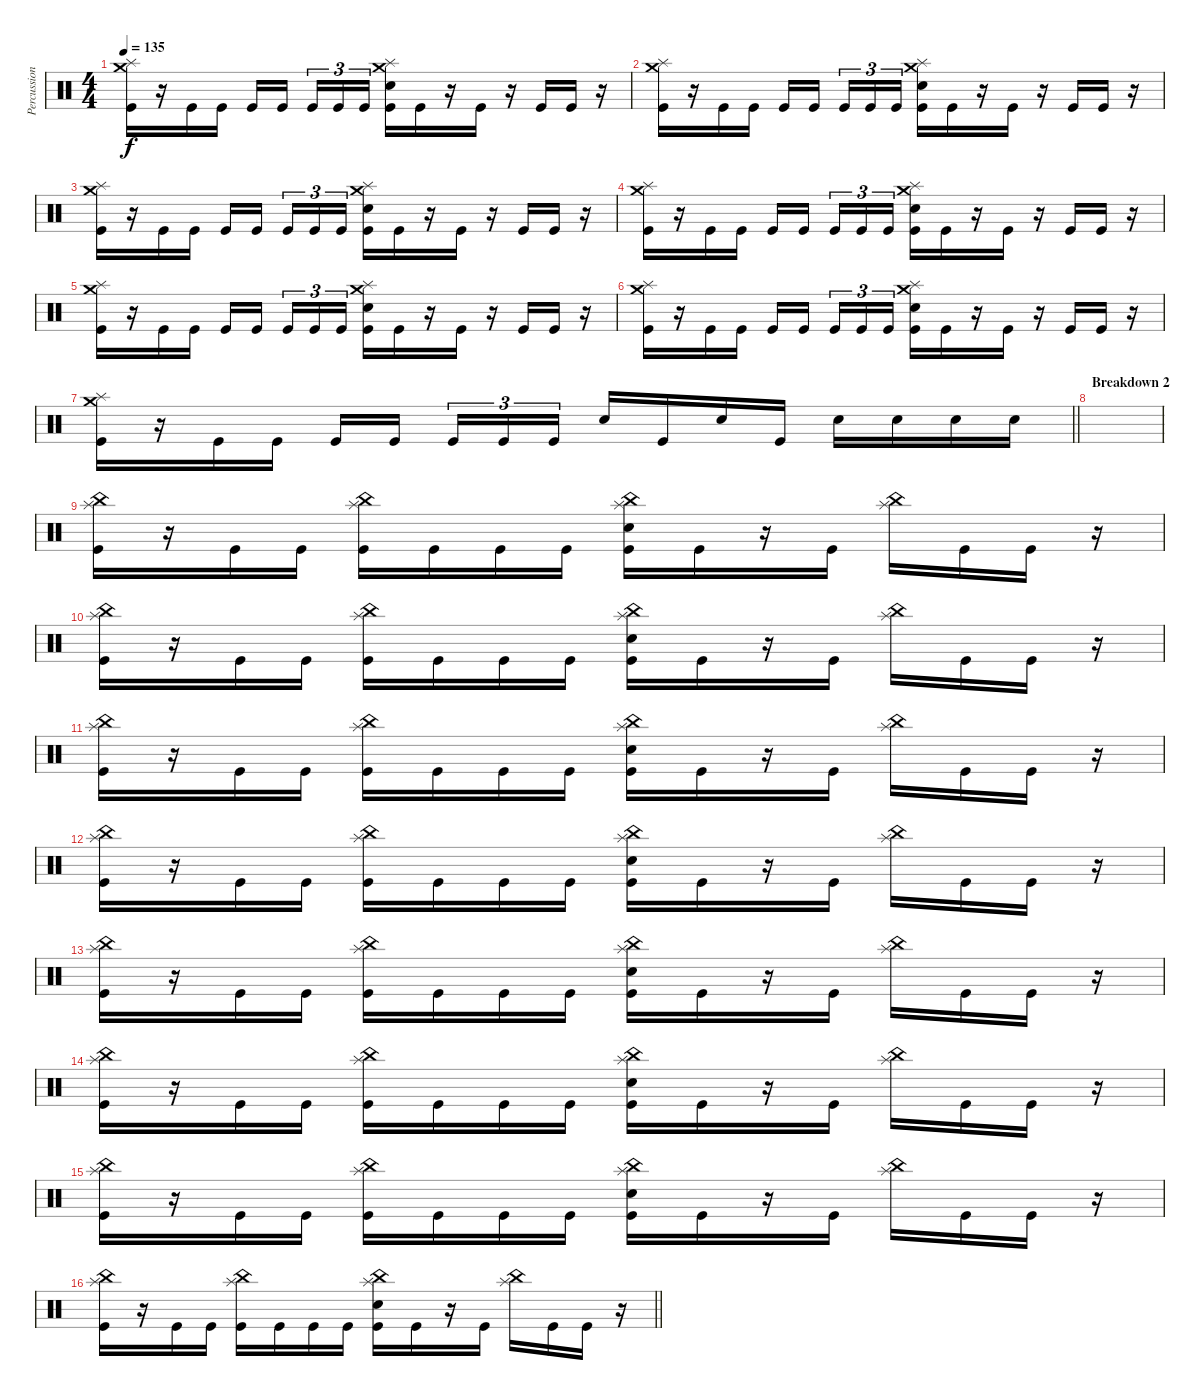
\track ("Percussion (Approx.)" "Percussion") {instrument percussion}
\staff {score}
\articulation defaults
\ts (4 4)
\tempo 135
\clef neutral
\ks c
("Crash medium (hit)" "Splash (hit)" "Kick (hit)").16{dy f} r.16 "Kick (hit)".16 "Kick (hit)".16 "Kick (hit)".16 "Kick (hit)".16{beam splitsecondary} "Kick (hit)".16{tu (3 2)} "Kick (hit)".16{tu (3 2)} "Kick (hit)".16{tu (3 2)} ("Crash medium (hit)" "Splash (hit)" "Electric Snare (hit)" "Kick (hit)").16 "Kick (hit)".16 r.16 "Kick (hit)".16 r.16 "Kick (hit)".16 "Kick (hit)".16 r.16 |
("Crash medium (hit)" "Splash (hit)" "Kick (hit)").16 r.16 "Kick (hit)".16 "Kick (hit)".16 "Kick (hit)".16 "Kick (hit)".16{beam splitsecondary} "Kick (hit)".16{tu (3 2)} "Kick (hit)".16{tu (3 2)} "Kick (hit)".16{tu (3 2)} ("Crash medium (hit)" "Splash (hit)" "Electric Snare (hit)" "Kick (hit)").16 "Kick (hit)".16 r.16 "Kick (hit)".16 r.16 "Kick (hit)".16 "Kick (hit)".16 r.16 |
("Crash medium (hit)" "Splash (hit)" "Kick (hit)").16 r.16 "Kick (hit)".16 "Kick (hit)".16 "Kick (hit)".16 "Kick (hit)".16{beam splitsecondary} "Kick (hit)".16{tu (3 2)} "Kick (hit)".16{tu (3 2)} "Kick (hit)".16{tu (3 2)} ("Crash medium (hit)" "Splash (hit)" "Electric Snare (hit)" "Kick (hit)").16 "Kick (hit)".16 r.16 "Kick (hit)".16 r.16 "Kick (hit)".16 "Kick (hit)".16 r.16 |
("Crash medium (hit)" "Splash (hit)" "Kick (hit)").16 r.16 "Kick (hit)".16 "Kick (hit)".16 "Kick (hit)".16 "Kick (hit)".16{beam splitsecondary} "Kick (hit)".16{tu (3 2)} "Kick (hit)".16{tu (3 2)} "Kick (hit)".16{tu (3 2)} ("Crash medium (hit)" "Splash (hit)" "Electric Snare (hit)" "Kick (hit)").16 "Kick (hit)".16 r.16 "Kick (hit)".16 r.16 "Kick (hit)".16 "Kick (hit)".16 r.16 |
("Crash medium (hit)" "Splash (hit)" "Kick (hit)").16 r.16 "Kick (hit)".16 "Kick (hit)".16 "Kick (hit)".16 "Kick (hit)".16{beam splitsecondary} "Kick (hit)".16{tu (3 2)} "Kick (hit)".16{tu (3 2)} "Kick (hit)".16{tu (3 2)} ("Crash medium (hit)" "Splash (hit)" "Electric Snare (hit)" "Kick (hit)").16 "Kick (hit)".16 r.16 "Kick (hit)".16 r.16 "Kick (hit)".16 "Kick (hit)".16 r.16 |
("Crash medium (hit)" "Splash (hit)" "Kick (hit)").16 r.16 "Kick (hit)".16 "Kick (hit)".16 "Kick (hit)".16 "Kick (hit)".16{beam splitsecondary} "Kick (hit)".16{tu (3 2)} "Kick (hit)".16{tu (3 2)} "Kick (hit)".16{tu (3 2)} ("Crash medium (hit)" "Splash (hit)" "Electric Snare (hit)" "Kick (hit)").16 "Kick (hit)".16 r.16 "Kick (hit)".16 r.16 "Kick (hit)".16 "Kick (hit)".16 r.16 |
\barLineRight lightlight
("Crash medium (hit)" "Splash (hit)" "Kick (hit)").16 r.16 "Kick (hit)".16 "Kick (hit)".16 "Kick (hit)".16 "Kick (hit)".16{beam splitsecondary} "Kick (hit)".16{tu (3 2)} "Kick (hit)".16{tu (3 2)} "Kick (hit)".16{tu (3 2)} "Electric Snare (hit)".16 "Kick (hit)".16 "Electric Snare (hit)".16 "Kick (hit)".16 "Electric Snare (hit)".16 "Electric Snare (hit)".16 "Electric Snare (hit)".16 "Electric Snare (hit)".16 |
\section ("" "Breakdown 2")
|
("China (hit)" "Splash (hit)" "Kick (hit)").16 r.16 "Kick (hit)".16 "Kick (hit)".16 ("China (hit)" "Splash (hit)" "Kick (hit)").16 "Kick (hit)".16 "Kick (hit)".16 "Kick (hit)".16 ("China (hit)" "Splash (hit)" "Electric Snare (hit)" "Kick (hit)").16 "Kick (hit)".16 r.16 "Kick (hit)".16 ("China (hit)" "Splash (hit)").16 "Kick (hit)".16 "Kick (hit)".16 r.16 |
("China (hit)" "Splash (hit)" "Kick (hit)").16 r.16 "Kick (hit)".16 "Kick (hit)".16 ("China (hit)" "Splash (hit)" "Kick (hit)").16 "Kick (hit)".16 "Kick (hit)".16 "Kick (hit)".16 ("China (hit)" "Splash (hit)" "Electric Snare (hit)" "Kick (hit)").16 "Kick (hit)".16 r.16 "Kick (hit)".16 ("China (hit)" "Splash (hit)").16 "Kick (hit)".16 "Kick (hit)".16 r.16 |
("China (hit)" "Splash (hit)" "Kick (hit)").16 r.16 "Kick (hit)".16 "Kick (hit)".16 ("China (hit)" "Splash (hit)" "Kick (hit)").16 "Kick (hit)".16 "Kick (hit)".16 "Kick (hit)".16 ("China (hit)" "Splash (hit)" "Electric Snare (hit)" "Kick (hit)").16 "Kick (hit)".16 r.16 "Kick (hit)".16 ("China (hit)" "Splash (hit)").16 "Kick (hit)".16 "Kick (hit)".16 r.16 |
("China (hit)" "Splash (hit)" "Kick (hit)").16 r.16 "Kick (hit)".16 "Kick (hit)".16 ("China (hit)" "Splash (hit)" "Kick (hit)").16 "Kick (hit)".16 "Kick (hit)".16 "Kick (hit)".16 ("China (hit)" "Splash (hit)" "Electric Snare (hit)" "Kick (hit)").16 "Kick (hit)".16 r.16 "Kick (hit)".16 ("China (hit)" "Splash (hit)").16 "Kick (hit)".16 "Kick (hit)".16 r.16 |
("China (hit)" "Splash (hit)" "Kick (hit)").16 r.16 "Kick (hit)".16 "Kick (hit)".16 ("China (hit)" "Splash (hit)" "Kick (hit)").16 "Kick (hit)".16 "Kick (hit)".16 "Kick (hit)".16 ("China (hit)" "Splash (hit)" "Electric Snare (hit)" "Kick (hit)").16 "Kick (hit)".16 r.16 "Kick (hit)".16 ("China (hit)" "Splash (hit)").16 "Kick (hit)".16 "Kick (hit)".16 r.16 |
("China (hit)" "Splash (hit)" "Kick (hit)").16 r.16 "Kick (hit)".16 "Kick (hit)".16 ("China (hit)" "Splash (hit)" "Kick (hit)").16 "Kick (hit)".16 "Kick (hit)".16 "Kick (hit)".16 ("China (hit)" "Splash (hit)" "Electric Snare (hit)" "Kick (hit)").16 "Kick (hit)".16 r.16 "Kick (hit)".16 ("China (hit)" "Splash (hit)").16 "Kick (hit)".16 "Kick (hit)".16 r.16 |
("China (hit)" "Splash (hit)" "Kick (hit)").16 r.16 "Kick (hit)".16 "Kick (hit)".16 ("China (hit)" "Splash (hit)" "Kick (hit)").16 "Kick (hit)".16 "Kick (hit)".16 "Kick (hit)".16 ("China (hit)" "Splash (hit)" "Electric Snare (hit)" "Kick (hit)").16 "Kick (hit)".16 r.16 "Kick (hit)".16 ("China (hit)" "Splash (hit)").16 "Kick (hit)".16 "Kick (hit)".16 r.16 |
\barLineRight lightlight
("China (hit)" "Splash (hit)" "Kick (hit)").16 r.16 "Kick (hit)".16 "Kick (hit)".16 ("China (hit)" "Splash (hit)" "Kick (hit)").16 "Kick (hit)".16 "Kick (hit)".16 "Kick (hit)".16 ("China (hit)" "Splash (hit)" "Electric Snare (hit)" "Kick (hit)").16 "Kick (hit)".16 r.16 "Kick (hit)".16 ("China (hit)" "Splash (hit)").16 "Kick (hit)".16 "Kick (hit)".16 r.16
